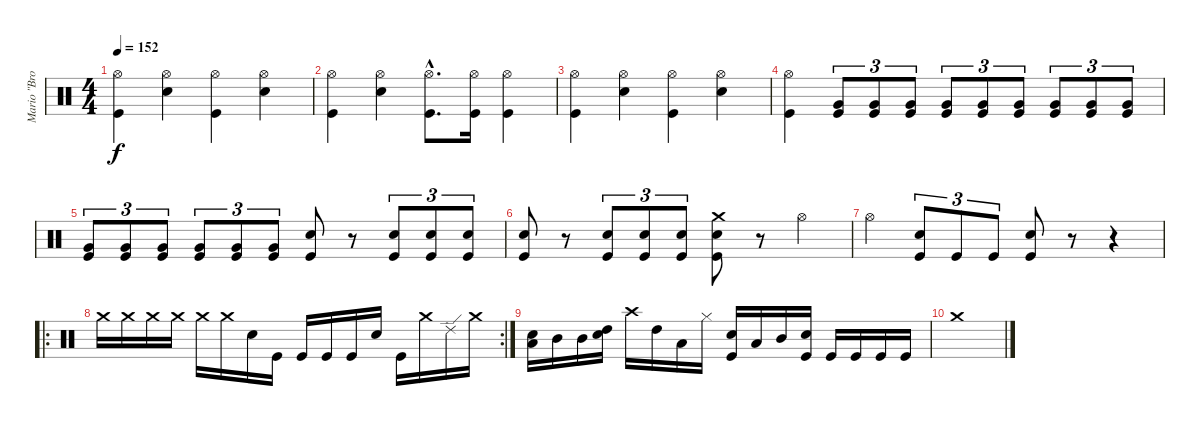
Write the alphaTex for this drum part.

\track ("Mario \"Bros\" Carvajal" "Mario \"Bro") {instrument percussion}
\staff {score}
\articulation defaults
\ts (4 4)
\tempo 152
\clef neutral
\ks c
("Kick (hit)" "Hi-Hat (open)").4{dy f} ("Snare (hit) 2" "Hi-Hat (open)").4 ("Kick (hit)" "Hi-Hat (open)").4 ("Snare (hit) 2" "Hi-Hat (open)").4 |
("Kick (hit)" "Hi-Hat (open)").4 ("Snare (hit) 2" "Hi-Hat (open)").4 ("Kick (hit)"{hac} "Hi-Hat (open)"{hac}).8{d} ("Kick (hit)" "Hi-Hat (open)").16 ("Kick (hit)" "Hi-Hat (open)").4 |
("Kick (hit)" "Hi-Hat (open)").4 ("Snare (hit) 2" "Hi-Hat (open)").4 ("Kick (hit)" "Hi-Hat (open)").4 ("Snare (hit) 2" "Hi-Hat (open)").4 |
("Kick (hit)" "Hi-Hat (open)").4 ("Kick (hit)" "Very Low Tom (hit)").8{tu (3 2)} ("Kick (hit)" "Very Low Tom (hit)").8{tu (3 2)} ("Kick (hit)" "Very Low Tom (hit)").8{tu (3 2)} ("Kick (hit)" "Very Low Tom (hit)").8{tu (3 2)} ("Kick (hit)" "Very Low Tom (hit)").8{tu (3 2)} ("Kick (hit)" "Very Low Tom (hit)").8{tu (3 2)} ("Kick (hit)" "Very Low Tom (hit)").8{tu (3 2)} ("Kick (hit)" "Very Low Tom (hit)").8{tu (3 2)} ("Kick (hit)" "Very Low Tom (hit)").8{tu (3 2)} |
("Kick (hit)" "Very Low Tom (hit)").8{tu (3 2)} ("Kick (hit)" "Very Low Tom (hit)").8{tu (3 2)} ("Kick (hit)" "Very Low Tom (hit)").8{tu (3 2)} ("Kick (hit)" "Very Low Tom (hit)").8{tu (3 2)} ("Kick (hit)" "Very Low Tom (hit)").8{tu (3 2)} ("Kick (hit)" "Very Low Tom (hit)").8{tu (3 2)} ("Kick (hit)" "Snare (hit) 2").8 r.8 ("Kick (hit)" "Snare (hit) 2").8{tu (3 2)} ("Kick (hit)" "Snare (hit) 2").8{tu (3 2)} ("Kick (hit)" "Snare (hit) 2").8{tu (3 2)} |
("Kick (hit)" "Snare (hit) 2").8 r.8 ("Kick (hit)" "Snare (hit) 2").8{tu (3 2)} ("Kick (hit)" "Snare (hit) 2").8{tu (3 2)} ("Kick (hit)" "Snare (hit) 2").8{tu (3 2)} ("Kick (hit)" "Snare (hit) 2" "Crash medium (hit)").8 r.8 "Hi-Hat (open)".4 |
"Hi-Hat (open)".4 ("Kick (hit)" "Snare (hit) 2").8{tu (3 2)} "Kick (hit)".8{tu (3 2)} "Kick (hit)".8{tu (3 2)} ("Kick (hit)" "Snare (hit) 2").8 r.8 r.4 |
\ro
\rc 2 "Crash medium (hit)".16 "Crash medium (hit)".16 "Crash medium (hit)".16 "Crash medium (hit)".16 "Crash medium (hit)".16 "Crash medium (hit)".16 "Snare (hit) 2".16 "Kick (hit)".16 "Kick (hit)".16 "Kick (hit)".16 "Kick (hit)".16 "Snare (hit) 2".16 "Kick (hit)".16 "Crash medium (hit)".16 "Ride (edge) 2".16 "Crash medium (hit)".16
|
("Snare (hit) 2" "Low Tom (hit)").16 "Mid Tom (hit)".16 "Mid Tom (hit)".16 ("Snare (hit) 2" "High Tom (hit)").16 "Crash high (hit)".16 "High Tom (hit)".16 "Low Tom (hit)".16 "Hi-Hat (closed)".16 ("Snare (hit) 2" "Kick (hit)").16 "Low Tom (hit)".16 "Mid Tom (hit)".16 ("Snare (hit) 2" "Kick (hit)").16 "Kick (hit)".16 "Kick (hit)".16 "Kick (hit)".16 "Kick (hit)".16 |
"Crash medium (hit)".1
